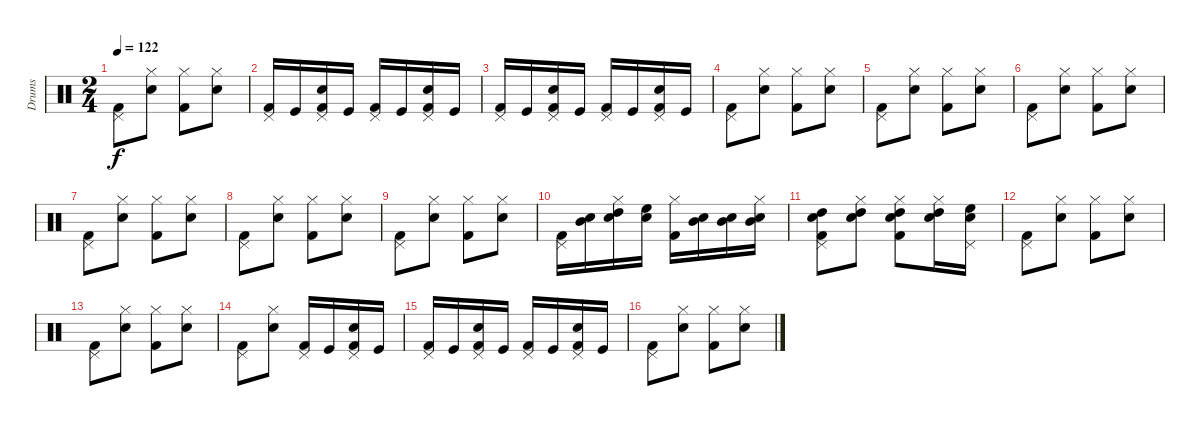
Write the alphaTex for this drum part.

\track ("Drums" "Drums") {instrument percussion}
\staff {score}
\articulation defaults
\ts (2 4)
\tempo 122
\clef neutral
\ks c
("Pedal Hi-Hat (hit)" "Kick (hit) 2").8{dy f} ("Hi-Hat (closed)" "Snare (hit) 2").8 ("Hi-Hat (closed)" "Kick (hit) 2").8 ("Hi-Hat (closed)" "Snare (hit) 2").8 |
("Pedal Hi-Hat (hit)" "Kick (hit) 2").16 "Kick (hit)".16 ("Pedal Hi-Hat (hit)" "Snare (hit) 2" "Kick (hit) 2").16 "Kick (hit)".16 ("Pedal Hi-Hat (hit)" "Kick (hit) 2").16 "Kick (hit)".16 ("Pedal Hi-Hat (hit)" "Snare (hit) 2" "Kick (hit) 2").16 "Kick (hit)".16 |
("Pedal Hi-Hat (hit)" "Kick (hit) 2").16 "Kick (hit)".16 ("Pedal Hi-Hat (hit)" "Snare (hit) 2" "Kick (hit) 2").16 "Kick (hit)".16 ("Pedal Hi-Hat (hit)" "Kick (hit) 2").16 "Kick (hit)".16 ("Pedal Hi-Hat (hit)" "Snare (hit) 2" "Kick (hit) 2").16 "Kick (hit)".16 |
("Pedal Hi-Hat (hit)" "Kick (hit) 2").8 ("Hi-Hat (closed)" "Snare (hit) 2").8 ("Hi-Hat (closed)" "Kick (hit) 2").8 ("Hi-Hat (closed)" "Snare (hit) 2").8 |
("Pedal Hi-Hat (hit)" "Kick (hit) 2").8 ("Hi-Hat (closed)" "Snare (hit) 2").8 ("Hi-Hat (closed)" "Kick (hit) 2").8 ("Hi-Hat (closed)" "Snare (hit) 2").8 |
("Pedal Hi-Hat (hit)" "Kick (hit) 2").8 ("Hi-Hat (closed)" "Snare (hit) 2").8 ("Hi-Hat (closed)" "Kick (hit) 2").8 ("Hi-Hat (closed)" "Snare (hit) 2").8 |
("Pedal Hi-Hat (hit)" "Kick (hit) 2").8 ("Hi-Hat (closed)" "Snare (hit) 2").8 ("Hi-Hat (closed)" "Kick (hit) 2").8 ("Hi-Hat (closed)" "Snare (hit) 2").8 |
("Pedal Hi-Hat (hit)" "Kick (hit) 2").8 ("Hi-Hat (closed)" "Snare (hit) 2").8 ("Hi-Hat (closed)" "Kick (hit) 2").8 ("Hi-Hat (closed)" "Snare (hit) 2").8 |
("Pedal Hi-Hat (hit)" "Kick (hit) 2").8 ("Hi-Hat (closed)" "Snare (hit) 2").8 ("Hi-Hat (closed)" "Kick (hit) 2").8 ("Hi-Hat (closed)" "Snare (hit) 2").8 |
("Pedal Hi-Hat (hit)" "Kick (hit) 2").16 ("Mid Tom (hit)" "Snare (hit) 2").16 ("Hi-Hat (closed)" "High Tom (hit)" "Snare (hit) 2").16 ("High Floor Tom (hit)" "Snare (hit) 2").16 ("Hi-Hat (closed)" "Kick (hit) 2").16 ("Mid Tom (hit)" "Snare (hit) 2").16 ("Mid Tom (hit)" "Snare (hit) 2").16 ("Hi-Hat (closed)" "Mid Tom (hit)" "Snare (hit) 2").16 |
("Pedal Hi-Hat (hit)" "High Tom (hit)" "Snare (hit) 2" "Kick (hit) 2").8 ("Hi-Hat (closed)" "High Tom (hit)" "Snare (hit) 2").8 ("Hi-Hat (closed)" "High Tom (hit)" "Snare (hit) 2" "Kick (hit) 2").8 ("Hi-Hat (closed)" "High Tom (hit)" "Snare (hit) 2").16 ("Pedal Hi-Hat (hit)" "High Floor Tom (hit)" "Snare (hit) 2").16 |
("Pedal Hi-Hat (hit)" "Kick (hit) 2").8 ("Hi-Hat (closed)" "Snare (hit) 2").8 ("Hi-Hat (closed)" "Kick (hit) 2").8 ("Hi-Hat (closed)" "Snare (hit) 2").8 |
("Pedal Hi-Hat (hit)" "Kick (hit) 2").8 ("Hi-Hat (closed)" "Snare (hit) 2").8 ("Hi-Hat (closed)" "Kick (hit) 2").8 ("Hi-Hat (closed)" "Snare (hit) 2").8 |
("Pedal Hi-Hat (hit)" "Kick (hit) 2").8 ("Hi-Hat (closed)" "Snare (hit) 2").8 ("Pedal Hi-Hat (hit)" "Kick (hit) 2").16 "Kick (hit)".16 ("Pedal Hi-Hat (hit)" "Snare (hit) 2" "Kick (hit) 2").16 "Kick (hit)".16 |
("Pedal Hi-Hat (hit)" "Kick (hit) 2").16 "Kick (hit)".16 ("Pedal Hi-Hat (hit)" "Snare (hit) 2" "Kick (hit) 2").16 "Kick (hit)".16 ("Pedal Hi-Hat (hit)" "Kick (hit) 2").16 "Kick (hit)".16 ("Pedal Hi-Hat (hit)" "Snare (hit) 2" "Kick (hit) 2").16 "Kick (hit)".16 |
("Pedal Hi-Hat (hit)" "Kick (hit) 2").8 ("Hi-Hat (closed)" "Snare (hit) 2").8 ("Hi-Hat (closed)" "Kick (hit) 2").8 ("Hi-Hat (closed)" "Snare (hit) 2").8
